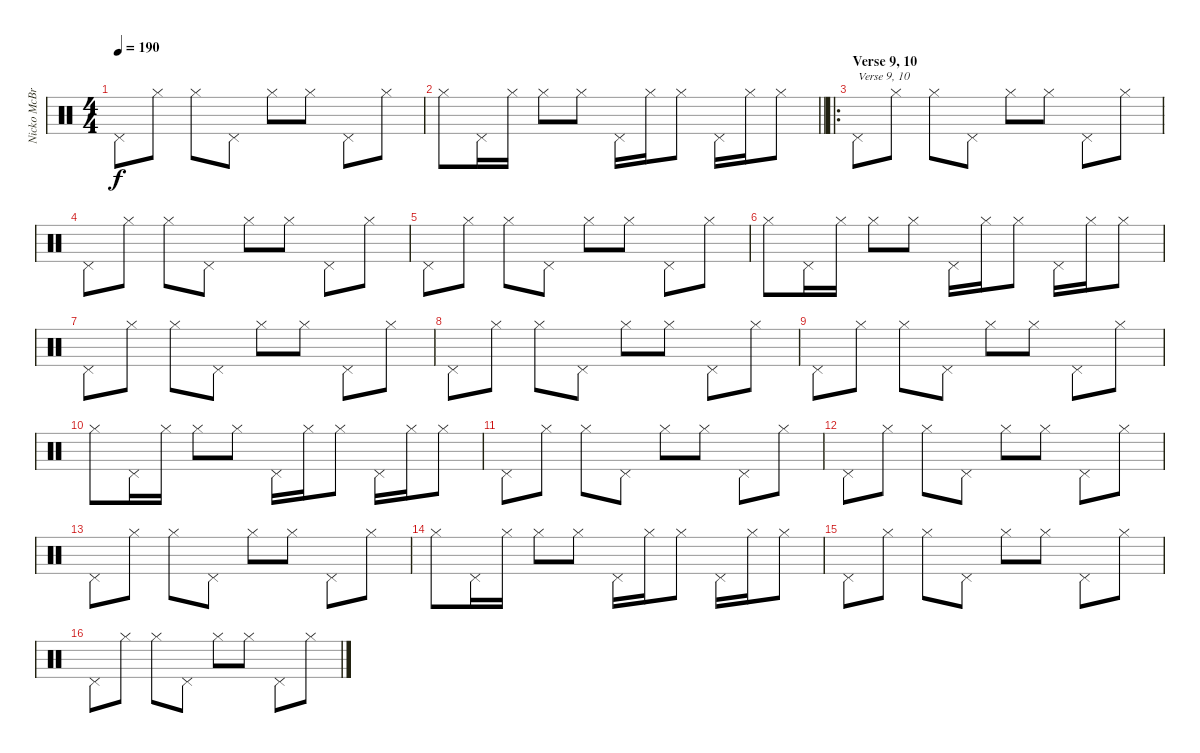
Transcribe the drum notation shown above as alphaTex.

\track ("Nicko McBrain" "Nicko McBr") {instrument percussion}
\staff {score}
\articulation defaults
\ts (4 4)
\tempo 190
\clef neutral
\ks c "Pedal Hi-Hat (hit)".8{dy f} "Hi-Hat (closed)".8 "Hi-Hat (closed)".8 "Pedal Hi-Hat (hit)".8 "Hi-Hat (closed)".8 "Hi-Hat (closed)".8 "Pedal Hi-Hat (hit)".8 "Hi-Hat (closed)".8
|
\barLineRight lightlight "Hi-Hat (closed)".8 "Pedal Hi-Hat (hit)".16 "Hi-Hat (closed)".16 "Hi-Hat (closed)".8 "Hi-Hat (closed)".8 "Pedal Hi-Hat (hit)".16 "Hi-Hat (closed)".16 "Hi-Hat (closed)".8 "Pedal Hi-Hat (hit)".16 "Hi-Hat (closed)".16 "Hi-Hat (closed)".8
|
\ro
\section ("" "Verse 9, 10")
"Pedal Hi-Hat (hit)".8{txt "Verse 9, 10"} "Hi-Hat (closed)".8 "Hi-Hat (closed)".8 "Pedal Hi-Hat (hit)".8 "Hi-Hat (closed)".8 "Hi-Hat (closed)".8 "Pedal Hi-Hat (hit)".8 "Hi-Hat (closed)".8 |
"Pedal Hi-Hat (hit)".8 "Hi-Hat (closed)".8 "Hi-Hat (closed)".8 "Pedal Hi-Hat (hit)".8 "Hi-Hat (closed)".8 "Hi-Hat (closed)".8 "Pedal Hi-Hat (hit)".8 "Hi-Hat (closed)".8 |
"Pedal Hi-Hat (hit)".8 "Hi-Hat (closed)".8 "Hi-Hat (closed)".8 "Pedal Hi-Hat (hit)".8 "Hi-Hat (closed)".8 "Hi-Hat (closed)".8 "Pedal Hi-Hat (hit)".8 "Hi-Hat (closed)".8 |
"Hi-Hat (closed)".8 "Pedal Hi-Hat (hit)".16 "Hi-Hat (closed)".16 "Hi-Hat (closed)".8 "Hi-Hat (closed)".8 "Pedal Hi-Hat (hit)".16 "Hi-Hat (closed)".16 "Hi-Hat (closed)".8 "Pedal Hi-Hat (hit)".16 "Hi-Hat (closed)".16 "Hi-Hat (closed)".8 |
"Pedal Hi-Hat (hit)".8 "Hi-Hat (closed)".8 "Hi-Hat (closed)".8 "Pedal Hi-Hat (hit)".8 "Hi-Hat (closed)".8 "Hi-Hat (closed)".8 "Pedal Hi-Hat (hit)".8 "Hi-Hat (closed)".8 |
"Pedal Hi-Hat (hit)".8 "Hi-Hat (closed)".8 "Hi-Hat (closed)".8 "Pedal Hi-Hat (hit)".8 "Hi-Hat (closed)".8 "Hi-Hat (closed)".8 "Pedal Hi-Hat (hit)".8 "Hi-Hat (closed)".8 |
"Pedal Hi-Hat (hit)".8 "Hi-Hat (closed)".8 "Hi-Hat (closed)".8 "Pedal Hi-Hat (hit)".8 "Hi-Hat (closed)".8 "Hi-Hat (closed)".8 "Pedal Hi-Hat (hit)".8 "Hi-Hat (closed)".8 |
"Hi-Hat (closed)".8 "Pedal Hi-Hat (hit)".16 "Hi-Hat (closed)".16 "Hi-Hat (closed)".8 "Hi-Hat (closed)".8 "Pedal Hi-Hat (hit)".16 "Hi-Hat (closed)".16 "Hi-Hat (closed)".8 "Pedal Hi-Hat (hit)".16 "Hi-Hat (closed)".16 "Hi-Hat (closed)".8 |
"Pedal Hi-Hat (hit)".8 "Hi-Hat (closed)".8 "Hi-Hat (closed)".8 "Pedal Hi-Hat (hit)".8 "Hi-Hat (closed)".8 "Hi-Hat (closed)".8 "Pedal Hi-Hat (hit)".8 "Hi-Hat (closed)".8 |
"Pedal Hi-Hat (hit)".8 "Hi-Hat (closed)".8 "Hi-Hat (closed)".8 "Pedal Hi-Hat (hit)".8 "Hi-Hat (closed)".8 "Hi-Hat (closed)".8 "Pedal Hi-Hat (hit)".8 "Hi-Hat (closed)".8 |
"Pedal Hi-Hat (hit)".8 "Hi-Hat (closed)".8 "Hi-Hat (closed)".8 "Pedal Hi-Hat (hit)".8 "Hi-Hat (closed)".8 "Hi-Hat (closed)".8 "Pedal Hi-Hat (hit)".8 "Hi-Hat (closed)".8 |
"Hi-Hat (closed)".8 "Pedal Hi-Hat (hit)".16 "Hi-Hat (closed)".16 "Hi-Hat (closed)".8 "Hi-Hat (closed)".8 "Pedal Hi-Hat (hit)".16 "Hi-Hat (closed)".16 "Hi-Hat (closed)".8 "Pedal Hi-Hat (hit)".16 "Hi-Hat (closed)".16 "Hi-Hat (closed)".8 |
"Pedal Hi-Hat (hit)".8 "Hi-Hat (closed)".8 "Hi-Hat (closed)".8 "Pedal Hi-Hat (hit)".8 "Hi-Hat (closed)".8 "Hi-Hat (closed)".8 "Pedal Hi-Hat (hit)".8 "Hi-Hat (closed)".8 |
"Pedal Hi-Hat (hit)".8 "Hi-Hat (closed)".8 "Hi-Hat (closed)".8 "Pedal Hi-Hat (hit)".8 "Hi-Hat (closed)".8 "Hi-Hat (closed)".8 "Pedal Hi-Hat (hit)".8 "Hi-Hat (closed)".8
